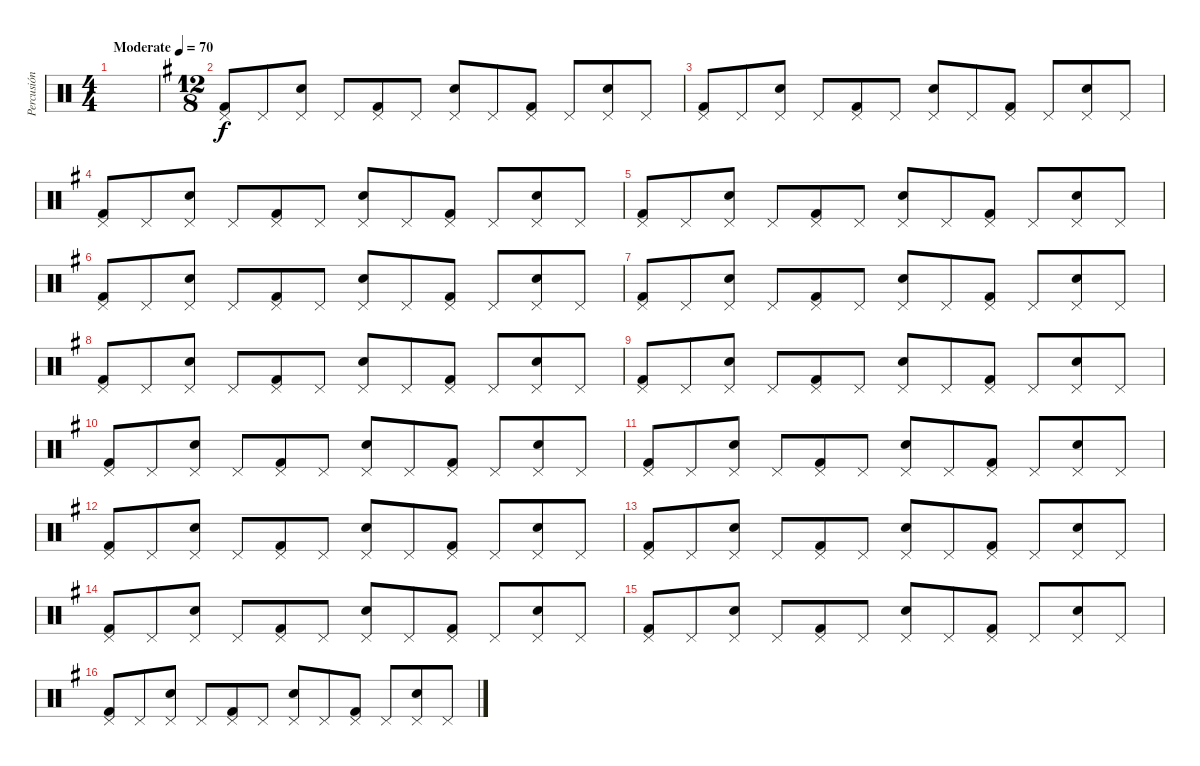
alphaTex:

\track ("Percusión" "Percusión") {mute instrument percussion}
\staff {score}
\articulation defaults
\ts (4 4)
\tempo (70 "Moderate")
\clef neutral
\ks c
|
\ts (12 8)
\ks g
("Pedal Hi-Hat (hit)" "Kick (hit) 2").8 "Pedal Hi-Hat (hit)".8 ("Pedal Hi-Hat (hit)" "Snare (hit) 2").8 "Pedal Hi-Hat (hit)".8 ("Pedal Hi-Hat (hit)" "Kick (hit) 2").8 "Pedal Hi-Hat (hit)".8 ("Pedal Hi-Hat (hit)" "Snare (hit) 2").8 "Pedal Hi-Hat (hit)".8 ("Pedal Hi-Hat (hit)" "Kick (hit) 2").8 "Pedal Hi-Hat (hit)".8 ("Pedal Hi-Hat (hit)" "Snare (hit) 2").8 "Pedal Hi-Hat (hit)".8 |
("Pedal Hi-Hat (hit)" "Kick (hit) 2").8 "Pedal Hi-Hat (hit)".8 ("Pedal Hi-Hat (hit)" "Snare (hit) 2").8 "Pedal Hi-Hat (hit)".8 ("Pedal Hi-Hat (hit)" "Kick (hit) 2").8 "Pedal Hi-Hat (hit)".8 ("Pedal Hi-Hat (hit)" "Snare (hit) 2").8 "Pedal Hi-Hat (hit)".8 ("Pedal Hi-Hat (hit)" "Kick (hit) 2").8 "Pedal Hi-Hat (hit)".8 ("Pedal Hi-Hat (hit)" "Snare (hit) 2").8 "Pedal Hi-Hat (hit)".8 |
("Pedal Hi-Hat (hit)" "Kick (hit) 2").8 "Pedal Hi-Hat (hit)".8 ("Pedal Hi-Hat (hit)" "Snare (hit) 2").8 "Pedal Hi-Hat (hit)".8 ("Pedal Hi-Hat (hit)" "Kick (hit) 2").8 "Pedal Hi-Hat (hit)".8 ("Pedal Hi-Hat (hit)" "Snare (hit) 2").8 "Pedal Hi-Hat (hit)".8 ("Pedal Hi-Hat (hit)" "Kick (hit) 2").8 "Pedal Hi-Hat (hit)".8 ("Pedal Hi-Hat (hit)" "Snare (hit) 2").8 "Pedal Hi-Hat (hit)".8 |
("Pedal Hi-Hat (hit)" "Kick (hit) 2").8 "Pedal Hi-Hat (hit)".8 ("Pedal Hi-Hat (hit)" "Snare (hit) 2").8 "Pedal Hi-Hat (hit)".8 ("Pedal Hi-Hat (hit)" "Kick (hit) 2").8 "Pedal Hi-Hat (hit)".8 ("Pedal Hi-Hat (hit)" "Snare (hit) 2").8 "Pedal Hi-Hat (hit)".8 ("Pedal Hi-Hat (hit)" "Kick (hit) 2").8 "Pedal Hi-Hat (hit)".8 ("Pedal Hi-Hat (hit)" "Snare (hit) 2").8 "Pedal Hi-Hat (hit)".8 |
("Pedal Hi-Hat (hit)" "Kick (hit) 2").8 "Pedal Hi-Hat (hit)".8 ("Pedal Hi-Hat (hit)" "Snare (hit) 2").8 "Pedal Hi-Hat (hit)".8 ("Pedal Hi-Hat (hit)" "Kick (hit) 2").8 "Pedal Hi-Hat (hit)".8 ("Pedal Hi-Hat (hit)" "Snare (hit) 2").8 "Pedal Hi-Hat (hit)".8 ("Pedal Hi-Hat (hit)" "Kick (hit) 2").8 "Pedal Hi-Hat (hit)".8 ("Pedal Hi-Hat (hit)" "Snare (hit) 2").8 "Pedal Hi-Hat (hit)".8 |
("Pedal Hi-Hat (hit)" "Kick (hit) 2").8 "Pedal Hi-Hat (hit)".8 ("Pedal Hi-Hat (hit)" "Snare (hit) 2").8 "Pedal Hi-Hat (hit)".8 ("Pedal Hi-Hat (hit)" "Kick (hit) 2").8 "Pedal Hi-Hat (hit)".8 ("Pedal Hi-Hat (hit)" "Snare (hit) 2").8 "Pedal Hi-Hat (hit)".8 ("Pedal Hi-Hat (hit)" "Kick (hit) 2").8 "Pedal Hi-Hat (hit)".8 ("Pedal Hi-Hat (hit)" "Snare (hit) 2").8 "Pedal Hi-Hat (hit)".8 |
("Pedal Hi-Hat (hit)" "Kick (hit) 2").8 "Pedal Hi-Hat (hit)".8 ("Pedal Hi-Hat (hit)" "Snare (hit) 2").8 "Pedal Hi-Hat (hit)".8 ("Pedal Hi-Hat (hit)" "Kick (hit) 2").8 "Pedal Hi-Hat (hit)".8 ("Pedal Hi-Hat (hit)" "Snare (hit) 2").8 "Pedal Hi-Hat (hit)".8 ("Pedal Hi-Hat (hit)" "Kick (hit) 2").8 "Pedal Hi-Hat (hit)".8 ("Pedal Hi-Hat (hit)" "Snare (hit) 2").8 "Pedal Hi-Hat (hit)".8 |
("Pedal Hi-Hat (hit)" "Kick (hit) 2").8 "Pedal Hi-Hat (hit)".8 ("Pedal Hi-Hat (hit)" "Snare (hit) 2").8 "Pedal Hi-Hat (hit)".8 ("Pedal Hi-Hat (hit)" "Kick (hit) 2").8 "Pedal Hi-Hat (hit)".8 ("Pedal Hi-Hat (hit)" "Snare (hit) 2").8 "Pedal Hi-Hat (hit)".8 ("Pedal Hi-Hat (hit)" "Kick (hit) 2").8 "Pedal Hi-Hat (hit)".8 ("Pedal Hi-Hat (hit)" "Snare (hit) 2").8 "Pedal Hi-Hat (hit)".8 |
("Pedal Hi-Hat (hit)" "Kick (hit) 2").8 "Pedal Hi-Hat (hit)".8 ("Pedal Hi-Hat (hit)" "Snare (hit) 2").8 "Pedal Hi-Hat (hit)".8 ("Pedal Hi-Hat (hit)" "Kick (hit) 2").8 "Pedal Hi-Hat (hit)".8 ("Pedal Hi-Hat (hit)" "Snare (hit) 2").8 "Pedal Hi-Hat (hit)".8 ("Pedal Hi-Hat (hit)" "Kick (hit) 2").8 "Pedal Hi-Hat (hit)".8 ("Pedal Hi-Hat (hit)" "Snare (hit) 2").8 "Pedal Hi-Hat (hit)".8 |
("Pedal Hi-Hat (hit)" "Kick (hit) 2").8 "Pedal Hi-Hat (hit)".8 ("Pedal Hi-Hat (hit)" "Snare (hit) 2").8 "Pedal Hi-Hat (hit)".8 ("Pedal Hi-Hat (hit)" "Kick (hit) 2").8 "Pedal Hi-Hat (hit)".8 ("Pedal Hi-Hat (hit)" "Snare (hit) 2").8 "Pedal Hi-Hat (hit)".8 ("Pedal Hi-Hat (hit)" "Kick (hit) 2").8 "Pedal Hi-Hat (hit)".8 ("Pedal Hi-Hat (hit)" "Snare (hit) 2").8 "Pedal Hi-Hat (hit)".8 |
("Pedal Hi-Hat (hit)" "Kick (hit) 2").8 "Pedal Hi-Hat (hit)".8 ("Pedal Hi-Hat (hit)" "Snare (hit) 2").8 "Pedal Hi-Hat (hit)".8 ("Pedal Hi-Hat (hit)" "Kick (hit) 2").8 "Pedal Hi-Hat (hit)".8 ("Pedal Hi-Hat (hit)" "Snare (hit) 2").8 "Pedal Hi-Hat (hit)".8 ("Pedal Hi-Hat (hit)" "Kick (hit) 2").8 "Pedal Hi-Hat (hit)".8 ("Pedal Hi-Hat (hit)" "Snare (hit) 2").8 "Pedal Hi-Hat (hit)".8 |
("Pedal Hi-Hat (hit)" "Kick (hit) 2").8 "Pedal Hi-Hat (hit)".8 ("Pedal Hi-Hat (hit)" "Snare (hit) 2").8 "Pedal Hi-Hat (hit)".8 ("Pedal Hi-Hat (hit)" "Kick (hit) 2").8 "Pedal Hi-Hat (hit)".8 ("Pedal Hi-Hat (hit)" "Snare (hit) 2").8 "Pedal Hi-Hat (hit)".8 ("Pedal Hi-Hat (hit)" "Kick (hit) 2").8 "Pedal Hi-Hat (hit)".8 ("Pedal Hi-Hat (hit)" "Snare (hit) 2").8 "Pedal Hi-Hat (hit)".8 |
("Pedal Hi-Hat (hit)" "Kick (hit) 2").8 "Pedal Hi-Hat (hit)".8 ("Pedal Hi-Hat (hit)" "Snare (hit) 2").8 "Pedal Hi-Hat (hit)".8 ("Pedal Hi-Hat (hit)" "Kick (hit) 2").8 "Pedal Hi-Hat (hit)".8 ("Pedal Hi-Hat (hit)" "Snare (hit) 2").8 "Pedal Hi-Hat (hit)".8 ("Pedal Hi-Hat (hit)" "Kick (hit) 2").8 "Pedal Hi-Hat (hit)".8 ("Pedal Hi-Hat (hit)" "Snare (hit) 2").8 "Pedal Hi-Hat (hit)".8 |
("Pedal Hi-Hat (hit)" "Kick (hit) 2").8 "Pedal Hi-Hat (hit)".8 ("Pedal Hi-Hat (hit)" "Snare (hit) 2").8 "Pedal Hi-Hat (hit)".8 ("Pedal Hi-Hat (hit)" "Kick (hit) 2").8 "Pedal Hi-Hat (hit)".8 ("Pedal Hi-Hat (hit)" "Snare (hit) 2").8 "Pedal Hi-Hat (hit)".8 ("Pedal Hi-Hat (hit)" "Kick (hit) 2").8 "Pedal Hi-Hat (hit)".8 ("Pedal Hi-Hat (hit)" "Snare (hit) 2").8 "Pedal Hi-Hat (hit)".8 |
("Pedal Hi-Hat (hit)" "Kick (hit) 2").8 "Pedal Hi-Hat (hit)".8 ("Pedal Hi-Hat (hit)" "Snare (hit) 2").8 "Pedal Hi-Hat (hit)".8 ("Pedal Hi-Hat (hit)" "Kick (hit) 2").8 "Pedal Hi-Hat (hit)".8 ("Pedal Hi-Hat (hit)" "Snare (hit) 2").8 "Pedal Hi-Hat (hit)".8 ("Pedal Hi-Hat (hit)" "Kick (hit) 2").8 "Pedal Hi-Hat (hit)".8 ("Pedal Hi-Hat (hit)" "Snare (hit) 2").8 "Pedal Hi-Hat (hit)".8
